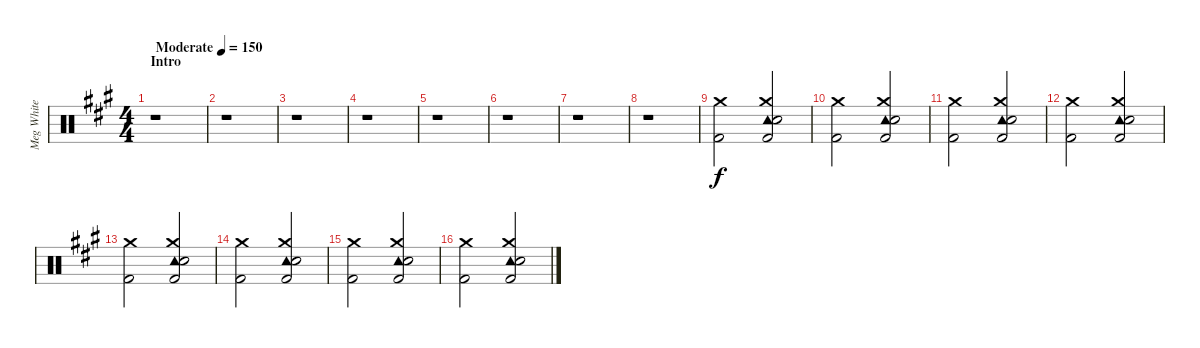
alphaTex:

\track ("Meg White Drums" "Meg White ") {instrument percussion}
\staff {score}
\articulation defaults
\ts (4 4)
\section ("" "Intro")
\tempo (150 "Moderate")
\clef neutral
\ks a
r.1{dy f} |
r.1 |
r.1 |
r.1 |
r.1 |
r.1 |
r.1 |
r.1 |
("Kick (hit) 2" "Crash medium (hit)").2 ("Tambourine (hit)" "Kick (hit) 2" "Snare (hit) 2" "Crash medium (hit)").2 |
("Kick (hit) 2" "Crash medium (hit)").2 ("Tambourine (hit)" "Kick (hit) 2" "Snare (hit) 2" "Crash medium (hit)").2 |
("Kick (hit) 2" "Crash medium (hit)").2 ("Tambourine (hit)" "Kick (hit) 2" "Snare (hit) 2" "Crash medium (hit)").2 |
("Kick (hit) 2" "Crash medium (hit)").2 ("Tambourine (hit)" "Kick (hit) 2" "Snare (hit) 2" "Crash medium (hit)").2 |
("Kick (hit) 2" "Crash medium (hit)").2 ("Tambourine (hit)" "Kick (hit) 2" "Snare (hit) 2" "Crash medium (hit)").2 |
("Kick (hit) 2" "Crash medium (hit)").2 ("Tambourine (hit)" "Kick (hit) 2" "Snare (hit) 2" "Crash medium (hit)").2 |
("Kick (hit) 2" "Crash medium (hit)").2 ("Tambourine (hit)" "Kick (hit) 2" "Snare (hit) 2" "Crash medium (hit)").2 |
("Kick (hit) 2" "Crash medium (hit)").2 ("Tambourine (hit)" "Kick (hit) 2" "Snare (hit) 2" "Crash medium (hit)").2
